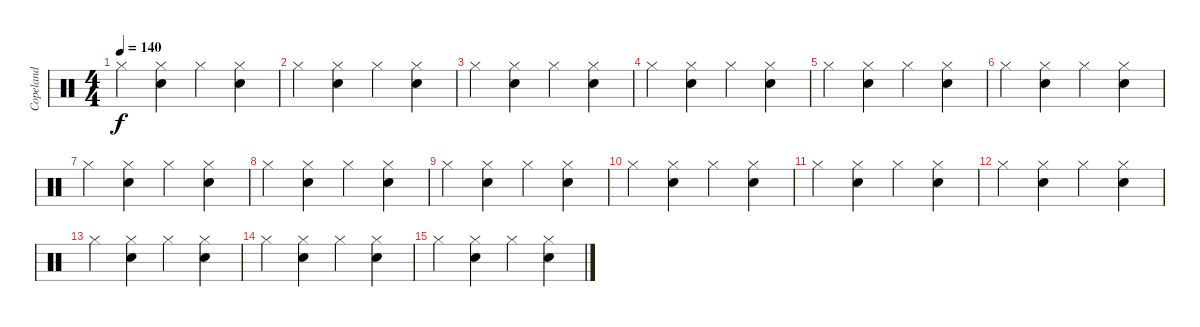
\track ("Copeland" "Copeland") {instrument percussion}
\staff {score}
\articulation defaults
\ts (4 4)
\tempo 140
\clef neutral
\ks c "Hi-Hat (closed)".4{dy f}
("Hi-Hat (closed)" "Electric Snare (hit)").4 "Hi-Hat (closed)".4 ("Hi-Hat (closed)" "Electric Snare (hit)").4 |
"Hi-Hat (closed)".4 ("Hi-Hat (closed)" "Electric Snare (hit)").4 "Hi-Hat (closed)".4 ("Hi-Hat (closed)" "Electric Snare (hit)").4 |
"Hi-Hat (closed)".4 ("Hi-Hat (closed)" "Electric Snare (hit)").4 "Hi-Hat (closed)".4 ("Hi-Hat (closed)" "Electric Snare (hit)").4 |
"Hi-Hat (closed)".4 ("Hi-Hat (closed)" "Electric Snare (hit)").4 "Hi-Hat (closed)".4 ("Hi-Hat (closed)" "Electric Snare (hit)").4 |
"Hi-Hat (closed)".4 ("Hi-Hat (closed)" "Electric Snare (hit)").4 "Hi-Hat (closed)".4 ("Hi-Hat (closed)" "Electric Snare (hit)").4 |
"Hi-Hat (closed)".4 ("Hi-Hat (closed)" "Electric Snare (hit)").4 "Hi-Hat (closed)".4 ("Hi-Hat (closed)" "Electric Snare (hit)").4 |
"Hi-Hat (closed)".4 ("Hi-Hat (closed)" "Electric Snare (hit)").4 "Hi-Hat (closed)".4 ("Hi-Hat (closed)" "Electric Snare (hit)").4 |
"Hi-Hat (closed)".4 ("Hi-Hat (closed)" "Electric Snare (hit)").4 "Hi-Hat (closed)".4 ("Hi-Hat (closed)" "Electric Snare (hit)").4 |
"Hi-Hat (closed)".4 ("Hi-Hat (closed)" "Electric Snare (hit)").4 "Hi-Hat (closed)".4 ("Hi-Hat (closed)" "Electric Snare (hit)").4 |
"Hi-Hat (closed)".4 ("Hi-Hat (closed)" "Electric Snare (hit)").4 "Hi-Hat (closed)".4 ("Hi-Hat (closed)" "Electric Snare (hit)").4 |
"Hi-Hat (closed)".4 ("Hi-Hat (closed)" "Electric Snare (hit)").4 "Hi-Hat (closed)".4 ("Hi-Hat (closed)" "Electric Snare (hit)").4 |
"Hi-Hat (closed)".4 ("Hi-Hat (closed)" "Electric Snare (hit)").4 "Hi-Hat (closed)".4 ("Hi-Hat (closed)" "Electric Snare (hit)").4 |
"Hi-Hat (closed)".4 ("Hi-Hat (closed)" "Electric Snare (hit)").4 "Hi-Hat (closed)".4 ("Hi-Hat (closed)" "Electric Snare (hit)").4 |
"Hi-Hat (closed)".4 ("Hi-Hat (closed)" "Electric Snare (hit)").4 "Hi-Hat (closed)".4 ("Hi-Hat (closed)" "Electric Snare (hit)").4 |
"Hi-Hat (closed)".4 ("Hi-Hat (closed)" "Electric Snare (hit)").4 "Hi-Hat (closed)".4 ("Hi-Hat (closed)" "Electric Snare (hit)").4
